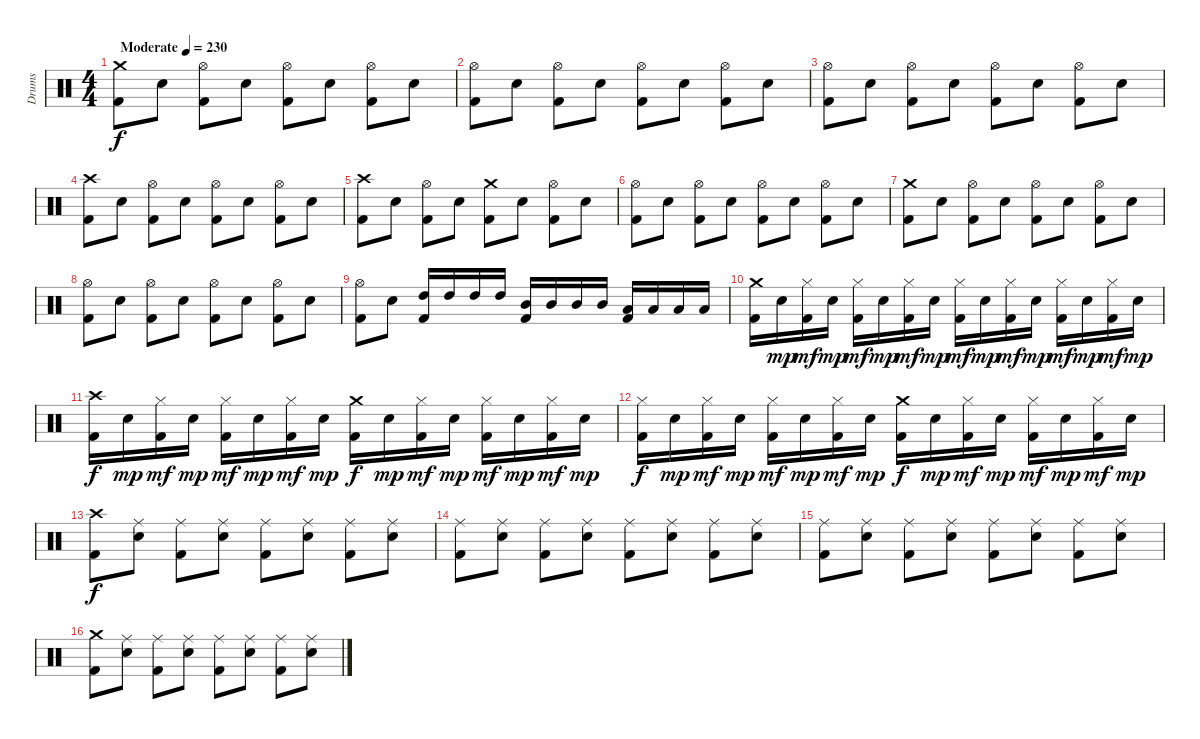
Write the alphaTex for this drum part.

\track ("Drums" "Drums") {instrument percussion}
\staff {score}
\articulation defaults
\ts (4 4)
\tempo (230 "Moderate")
\clef neutral
\ks c
("Crash medium (hit)" "Kick (hit) 2").8{dy f} "Electric Snare (hit)".8 ("Hi-Hat (open)" "Kick (hit) 2").8 "Electric Snare (hit)".8 ("Hi-Hat (open)" "Kick (hit) 2").8 "Electric Snare (hit)".8 ("Hi-Hat (open)" "Kick (hit) 2").8 "Electric Snare (hit)".8 |
("Hi-Hat (open)" "Kick (hit) 2").8 "Electric Snare (hit)".8 ("Hi-Hat (open)" "Kick (hit) 2").8 "Electric Snare (hit)".8 ("Hi-Hat (open)" "Kick (hit) 2").8 "Electric Snare (hit)".8 ("Hi-Hat (open)" "Kick (hit) 2").8 "Electric Snare (hit)".8 |
("Hi-Hat (open)" "Kick (hit) 2").8 "Electric Snare (hit)".8 ("Hi-Hat (open)" "Kick (hit) 2").8 "Electric Snare (hit)".8 ("Hi-Hat (open)" "Kick (hit) 2").8 "Electric Snare (hit)".8 ("Hi-Hat (open)" "Kick (hit) 2").8 "Electric Snare (hit)".8 |
("Crash high (hit)" "Kick (hit) 2").8 "Electric Snare (hit)".8 ("Hi-Hat (open)" "Kick (hit) 2").8 "Electric Snare (hit)".8 ("Hi-Hat (open)" "Kick (hit) 2").8 "Electric Snare (hit)".8 ("Hi-Hat (open)" "Kick (hit) 2").8 "Electric Snare (hit)".8 |
("Crash high (hit)" "Kick (hit) 2").8 "Electric Snare (hit)".8 ("Hi-Hat (open)" "Kick (hit) 2").8 "Electric Snare (hit)".8 ("Crash medium (hit)" "Kick (hit) 2").8 "Electric Snare (hit)".8 ("Hi-Hat (open)" "Kick (hit) 2").8 "Electric Snare (hit)".8 |
("Hi-Hat (open)" "Kick (hit) 2").8 "Electric Snare (hit)".8 ("Hi-Hat (open)" "Kick (hit) 2").8 "Electric Snare (hit)".8 ("Hi-Hat (open)" "Kick (hit) 2").8 "Electric Snare (hit)".8 ("Hi-Hat (open)" "Kick (hit) 2").8 "Electric Snare (hit)".8 |
("Crash medium (hit)" "Kick (hit) 2").8 "Electric Snare (hit)".8 ("Hi-Hat (open)" "Kick (hit) 2").8 "Electric Snare (hit)".8 ("Hi-Hat (open)" "Kick (hit) 2").8 "Electric Snare (hit)".8 ("Hi-Hat (open)" "Kick (hit) 2").8 "Electric Snare (hit)".8 |
("Hi-Hat (open)" "Kick (hit) 2").8 "Electric Snare (hit)".8 ("Hi-Hat (open)" "Kick (hit) 2").8 "Electric Snare (hit)".8 ("Hi-Hat (open)" "Kick (hit) 2").8 "Electric Snare (hit)".8 ("Hi-Hat (open)" "Kick (hit) 2").8 "Electric Snare (hit)".8 |
("Hi-Hat (open)" "Kick (hit) 2").8 "Electric Snare (hit)".8 ("High Tom (hit)" "Kick (hit) 2").16 "High Tom (hit)".16 "High Tom (hit)".16 "High Tom (hit)".16 ("Mid Tom (hit)" "Kick (hit) 2").16 "Mid Tom (hit)".16 "Mid Tom (hit)".16 "Mid Tom (hit)".16 ("Low Tom (hit)" "Kick (hit) 2").16 "Low Tom (hit)".16 "Low Tom (hit)".16 "Low Tom (hit)".16 |
("Crash medium (hit)" "Kick (hit) 2").16 "Electric Snare (hit)".16{dy mp} ("Hi-Hat (closed)" "Kick (hit) 2").16{dy mf} "Electric Snare (hit)".16{dy mp} ("Hi-Hat (closed)" "Kick (hit) 2").16{dy mf} "Electric Snare (hit)".16{dy mp} ("Hi-Hat (closed)" "Kick (hit) 2").16{dy mf} "Electric Snare (hit)".16{dy mp} ("Hi-Hat (closed)" "Kick (hit) 2").16{dy mf} "Electric Snare (hit)".16{dy mp} ("Hi-Hat (closed)" "Kick (hit) 2").16{dy mf} "Electric Snare (hit)".16{dy mp} ("Hi-Hat (closed)" "Kick (hit) 2").16{dy mf} "Electric Snare (hit)".16{dy mp} ("Hi-Hat (closed)" "Kick (hit) 2").16{dy mf} "Electric Snare (hit)".16{dy mp} |
("Crash high (hit)" "Kick (hit) 2").16{dy f} "Electric Snare (hit)".16{dy mp} ("Hi-Hat (closed)" "Kick (hit) 2").16{dy mf} "Electric Snare (hit)".16{dy mp} ("Hi-Hat (closed)" "Kick (hit) 2").16{dy mf} "Electric Snare (hit)".16{dy mp} ("Hi-Hat (closed)" "Kick (hit) 2").16{dy mf} "Electric Snare (hit)".16{dy mp} ("Crash medium (hit)" "Kick (hit) 2").16{dy f} "Electric Snare (hit)".16{dy mp} ("Hi-Hat (closed)" "Kick (hit) 2").16{dy mf} "Electric Snare (hit)".16{dy mp} ("Hi-Hat (closed)" "Kick (hit) 2").16{dy mf} "Electric Snare (hit)".16{dy mp} ("Hi-Hat (closed)" "Kick (hit) 2").16{dy mf} "Electric Snare (hit)".16{dy mp} |
("Hi-Hat (closed)" "Kick (hit) 2").16{dy f} "Electric Snare (hit)".16{dy mp} ("Hi-Hat (closed)" "Kick (hit) 2").16{dy mf} "Electric Snare (hit)".16{dy mp} ("Hi-Hat (closed)" "Kick (hit) 2").16{dy mf} "Electric Snare (hit)".16{dy mp} ("Hi-Hat (closed)" "Kick (hit) 2").16{dy mf} "Electric Snare (hit)".16{dy mp} ("Crash medium (hit)" "Kick (hit) 2").16{dy f} "Electric Snare (hit)".16{dy mp} ("Hi-Hat (closed)" "Kick (hit) 2").16{dy mf} "Electric Snare (hit)".16{dy mp} ("Hi-Hat (closed)" "Kick (hit) 2").16{dy mf} "Electric Snare (hit)".16{dy mp} ("Hi-Hat (closed)" "Kick (hit) 2").16{dy mf} "Electric Snare (hit)".16{dy mp} |
("Crash high (hit)" "Kick (hit) 2").8{dy f} ("Ride (middle)" "Electric Snare (hit)").8 ("Ride (middle)" "Kick (hit) 2").8 ("Ride (middle)" "Electric Snare (hit)").8 ("Ride (middle)" "Kick (hit) 2").8 ("Ride (middle)" "Electric Snare (hit)").8 ("Ride (middle)" "Kick (hit) 2").8 ("Ride (middle)" "Electric Snare (hit)").8 |
("Ride (middle)" "Kick (hit) 2").8 ("Ride (middle)" "Electric Snare (hit)").8 ("Ride (middle)" "Kick (hit) 2").8 ("Ride (middle)" "Electric Snare (hit)").8 ("Ride (middle)" "Kick (hit) 2").8 ("Ride (middle)" "Electric Snare (hit)").8 ("Ride (middle)" "Kick (hit) 2").8 ("Ride (middle)" "Electric Snare (hit)").8 |
("Ride (middle)" "Kick (hit) 2").8 ("Ride (middle)" "Electric Snare (hit)").8 ("Ride (middle)" "Kick (hit) 2").8 ("Ride (middle)" "Electric Snare (hit)").8 ("Ride (middle)" "Kick (hit) 2").8 ("Ride (middle)" "Electric Snare (hit)").8 ("Ride (middle)" "Kick (hit) 2").8 ("Ride (middle)" "Electric Snare (hit)").8 |
("Crash medium (hit)" "Kick (hit) 2").8 ("Ride (middle)" "Electric Snare (hit)").8 ("Ride (middle)" "Kick (hit) 2").8 ("Ride (middle)" "Electric Snare (hit)").8 ("Ride (middle)" "Kick (hit) 2").8 ("Ride (middle)" "Electric Snare (hit)").8 ("Ride (middle)" "Kick (hit) 2").8 ("Ride (middle)" "Electric Snare (hit)").8
